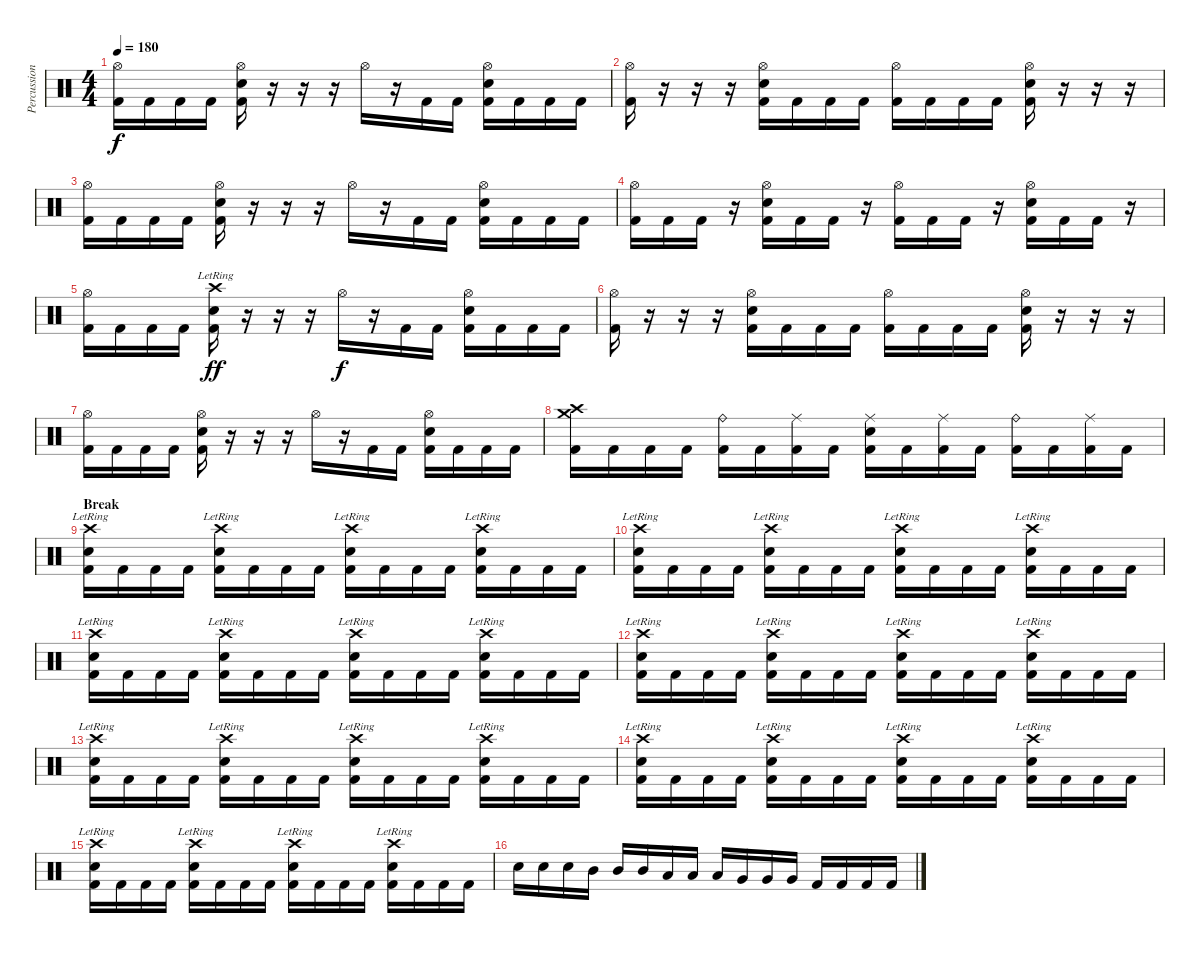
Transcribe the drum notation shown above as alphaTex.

\track ("Percussions" "Percussion") {instrument percussion}
\staff {score}
\articulation defaults
\ts (4 4)
\tempo 180
\clef neutral
\ks c
("Hi-Hat (open)" "Kick (hit) 2").16{dy f} "Kick (hit) 2".16 "Kick (hit) 2".16 "Kick (hit) 2".16 ("Hi-Hat (open)" "Electric Snare (hit)" "Kick (hit) 2").16 r.16 r.16 r.16 "Hi-Hat (open)".16 r.16 "Kick (hit) 2".16 "Kick (hit) 2".16 ("Hi-Hat (open)" "Electric Snare (hit)" "Kick (hit) 2").16 "Kick (hit) 2".16 "Kick (hit) 2".16 "Kick (hit) 2".16 |
("Hi-Hat (open)" "Kick (hit) 2").16 r.16 r.16 r.16 ("Hi-Hat (open)" "Electric Snare (hit)" "Kick (hit) 2").16 "Kick (hit) 2".16 "Kick (hit) 2".16 "Kick (hit) 2".16 ("Hi-Hat (open)" "Kick (hit) 2").16 "Kick (hit) 2".16 "Kick (hit) 2".16 "Kick (hit) 2".16 ("Hi-Hat (open)" "Electric Snare (hit)" "Kick (hit) 2").16 r.16 r.16 r.16 |
("Hi-Hat (open)" "Kick (hit) 2").16 "Kick (hit) 2".16 "Kick (hit) 2".16 "Kick (hit) 2".16 ("Hi-Hat (open)" "Electric Snare (hit)" "Kick (hit) 2").16 r.16 r.16 r.16 "Hi-Hat (open)".16 r.16 "Kick (hit) 2".16 "Kick (hit) 2".16 ("Hi-Hat (open)" "Electric Snare (hit)" "Kick (hit) 2").16 "Kick (hit) 2".16 "Kick (hit) 2".16 "Kick (hit) 2".16 |
("Hi-Hat (open)" "Kick (hit) 2").16 "Kick (hit) 2".16 "Kick (hit) 2".16 r.16 ("Hi-Hat (open)" "Electric Snare (hit)" "Kick (hit) 2").16 "Kick (hit) 2".16 "Kick (hit) 2".16 r.16 ("Hi-Hat (open)" "Kick (hit) 2").16 "Kick (hit) 2".16 "Kick (hit) 2".16 r.16 ("Hi-Hat (open)" "Electric Snare (hit)" "Kick (hit) 2").16 "Kick (hit) 2".16 "Kick (hit) 2".16 r.16 |
("Hi-Hat (open)" "Kick (hit) 2").16 "Kick (hit) 2".16 "Kick (hit) 2".16 "Kick (hit) 2".16 ("Crash high (hit)"{lr} "Electric Snare (hit)" "Kick (hit) 2").16{dy ff} r.16 r.16 r.16 "Hi-Hat (open)".16{dy f} r.16 "Kick (hit) 2".16 "Kick (hit) 2".16 ("Hi-Hat (open)" "Electric Snare (hit)" "Kick (hit) 2").16 "Kick (hit) 2".16 "Kick (hit) 2".16 "Kick (hit) 2".16 |
("Hi-Hat (open)" "Kick (hit) 2").16 r.16 r.16 r.16 ("Hi-Hat (open)" "Electric Snare (hit)" "Kick (hit) 2").16 "Kick (hit) 2".16 "Kick (hit) 2".16 "Kick (hit) 2".16 ("Hi-Hat (open)" "Kick (hit) 2").16 "Kick (hit) 2".16 "Kick (hit) 2".16 "Kick (hit) 2".16 ("Hi-Hat (open)" "Electric Snare (hit)" "Kick (hit) 2").16 r.16 r.16 r.16 |
("Hi-Hat (open)" "Kick (hit) 2").16 "Kick (hit) 2".16 "Kick (hit) 2".16 "Kick (hit) 2".16 ("Hi-Hat (open)" "Electric Snare (hit)" "Kick (hit) 2").16 r.16 r.16 r.16 "Hi-Hat (open)".16 r.16 "Kick (hit) 2".16 "Kick (hit) 2".16 ("Hi-Hat (open)" "Electric Snare (hit)" "Kick (hit) 2").16 "Kick (hit) 2".16 "Kick (hit) 2".16 "Kick (hit) 2".16 |
("Crash medium (hit)" "Crash high (hit)" "Kick (hit) 2").16 "Kick (hit) 2".16 "Kick (hit) 2".16 "Kick (hit) 2".16 ("Ride (bell)" "Kick (hit) 2").16 "Kick (hit) 2".16 ("Ride (middle)" "Kick (hit) 2").16 "Kick (hit) 2".16 ("Ride (middle)" "Electric Snare (hit)" "Kick (hit) 2").16 "Kick (hit) 2".16 ("Ride (middle)" "Kick (hit) 2").16 "Kick (hit) 2".16 ("Ride (bell)" "Kick (hit) 2").16 "Kick (hit) 2".16 ("Ride (middle)" "Kick (hit) 2").16 "Kick (hit) 2".16 |
\section ("" "Break")
("Crash high (hit)"{lr} "Electric Snare (hit)" "Kick (hit) 2").16 "Kick (hit) 2".16 "Kick (hit) 2".16 "Kick (hit) 2".16 ("Crash high (hit)"{lr} "Electric Snare (hit)" "Kick (hit) 2").16 "Kick (hit) 2".16 "Kick (hit) 2".16 "Kick (hit) 2".16 ("Crash high (hit)"{lr} "Electric Snare (hit)" "Kick (hit) 2").16 "Kick (hit) 2".16 "Kick (hit) 2".16 "Kick (hit) 2".16 ("Crash high (hit)"{lr} "Electric Snare (hit)" "Kick (hit) 2").16 "Kick (hit) 2".16 "Kick (hit) 2".16 "Kick (hit) 2".16 |
("Crash high (hit)"{lr} "Electric Snare (hit)" "Kick (hit) 2").16 "Kick (hit) 2".16 "Kick (hit) 2".16 "Kick (hit) 2".16 ("Crash high (hit)"{lr} "Electric Snare (hit)" "Kick (hit) 2").16 "Kick (hit) 2".16 "Kick (hit) 2".16 "Kick (hit) 2".16 ("Crash high (hit)"{lr} "Electric Snare (hit)" "Kick (hit) 2").16 "Kick (hit) 2".16 "Kick (hit) 2".16 "Kick (hit) 2".16 ("Crash high (hit)"{lr} "Electric Snare (hit)" "Kick (hit) 2").16 "Kick (hit) 2".16 "Kick (hit) 2".16 "Kick (hit) 2".16 |
("Crash high (hit)"{lr} "Electric Snare (hit)" "Kick (hit) 2").16 "Kick (hit) 2".16 "Kick (hit) 2".16 "Kick (hit) 2".16 ("Crash high (hit)"{lr} "Electric Snare (hit)" "Kick (hit) 2").16 "Kick (hit) 2".16 "Kick (hit) 2".16 "Kick (hit) 2".16 ("Crash high (hit)"{lr} "Electric Snare (hit)" "Kick (hit) 2").16 "Kick (hit) 2".16 "Kick (hit) 2".16 "Kick (hit) 2".16 ("Crash high (hit)"{lr} "Electric Snare (hit)" "Kick (hit) 2").16 "Kick (hit) 2".16 "Kick (hit) 2".16 "Kick (hit) 2".16 |
("Crash high (hit)"{lr} "Electric Snare (hit)" "Kick (hit) 2").16 "Kick (hit) 2".16 "Kick (hit) 2".16 "Kick (hit) 2".16 ("Crash high (hit)"{lr} "Electric Snare (hit)" "Kick (hit) 2").16 "Kick (hit) 2".16 "Kick (hit) 2".16 "Kick (hit) 2".16 ("Crash high (hit)"{lr} "Electric Snare (hit)" "Kick (hit) 2").16 "Kick (hit) 2".16 "Kick (hit) 2".16 "Kick (hit) 2".16 ("Crash high (hit)"{lr} "Electric Snare (hit)" "Kick (hit) 2").16 "Kick (hit) 2".16 "Kick (hit) 2".16 "Kick (hit) 2".16 |
("Crash high (hit)"{lr} "Electric Snare (hit)" "Kick (hit) 2").16 "Kick (hit) 2".16 "Kick (hit) 2".16 "Kick (hit) 2".16 ("Crash high (hit)"{lr} "Electric Snare (hit)" "Kick (hit) 2").16 "Kick (hit) 2".16 "Kick (hit) 2".16 "Kick (hit) 2".16 ("Crash high (hit)"{lr} "Electric Snare (hit)" "Kick (hit) 2").16 "Kick (hit) 2".16 "Kick (hit) 2".16 "Kick (hit) 2".16 ("Crash high (hit)"{lr} "Electric Snare (hit)" "Kick (hit) 2").16 "Kick (hit) 2".16 "Kick (hit) 2".16 "Kick (hit) 2".16 |
("Crash high (hit)"{lr} "Electric Snare (hit)" "Kick (hit) 2").16 "Kick (hit) 2".16 "Kick (hit) 2".16 "Kick (hit) 2".16 ("Crash high (hit)"{lr} "Electric Snare (hit)" "Kick (hit) 2").16 "Kick (hit) 2".16 "Kick (hit) 2".16 "Kick (hit) 2".16 ("Crash high (hit)"{lr} "Electric Snare (hit)" "Kick (hit) 2").16 "Kick (hit) 2".16 "Kick (hit) 2".16 "Kick (hit) 2".16 ("Crash high (hit)"{lr} "Electric Snare (hit)" "Kick (hit) 2").16 "Kick (hit) 2".16 "Kick (hit) 2".16 "Kick (hit) 2".16 |
("Crash high (hit)"{lr} "Electric Snare (hit)" "Kick (hit) 2").16 "Kick (hit) 2".16 "Kick (hit) 2".16 "Kick (hit) 2".16 ("Crash high (hit)"{lr} "Electric Snare (hit)" "Kick (hit) 2").16 "Kick (hit) 2".16 "Kick (hit) 2".16 "Kick (hit) 2".16 ("Crash high (hit)"{lr} "Electric Snare (hit)" "Kick (hit) 2").16 "Kick (hit) 2".16 "Kick (hit) 2".16 "Kick (hit) 2".16 ("Crash high (hit)"{lr} "Electric Snare (hit)" "Kick (hit) 2").16 "Kick (hit) 2".16 "Kick (hit) 2".16 "Kick (hit) 2".16 |
"Electric Snare (hit)".16 "Electric Snare (hit)".16 "Electric Snare (hit)".16 "Mid Tom (hit)".16 "Mid Tom (hit)".16 "Mid Tom (hit)".16 "Low Tom (hit)".16 "Low Tom (hit)".16 "Low Tom (hit)".16 "Very Low Tom (hit)".16 "Very Low Tom (hit)".16 "Very Low Tom (hit)".16 "Kick (hit) 2".16 "Kick (hit) 2".16 "Kick (hit) 2".16 "Kick (hit) 2".16
